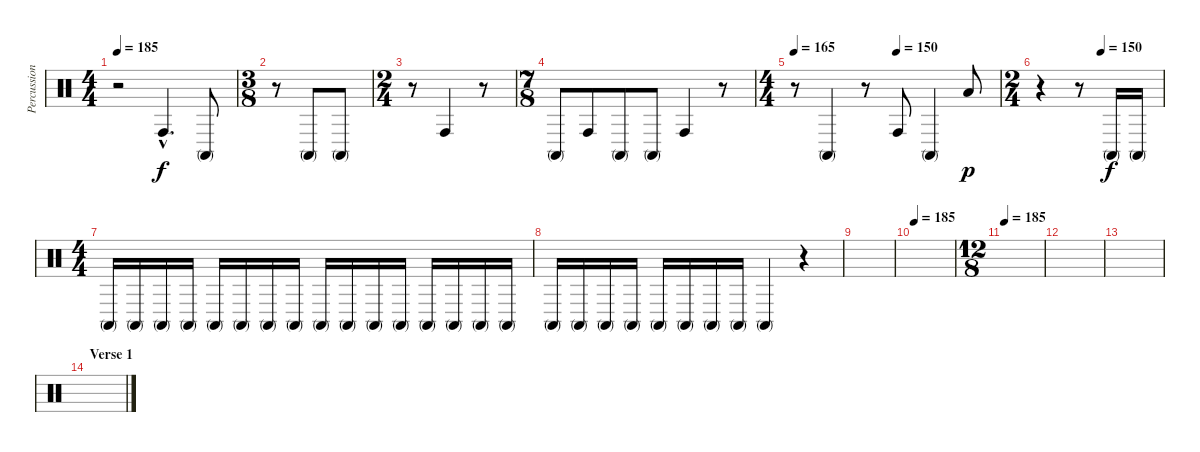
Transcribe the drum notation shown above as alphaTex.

\track ("Percussion" "Percussion") {instrument percussion}
\staff {score}
\articulation defaults
\ts (4 4)
\tempo 185
\tempo 150
\tempo 185
\clef neutral
\ks c
r.2{dy f} "Conga high (hit)"{hac}.4{d} "Conga high (mute)".8 |
\ts (3 8)
r.8 "Conga high (mute)".8 "Conga high (mute)".8 |
\ts (2 4)
r.8 "Conga high (hit)".4 r.8 |
\ts (7 8)
"Conga high (mute)".8 "Conga high (hit)".8 "Conga high (mute)".8 "Conga high (mute)".8 "Conga high (hit)".4 r.8 |
\ts (4 4)
\tempo 165
\tempo (150 0.5)
r.8 "Conga high (mute)".4 r.8 "Conga high (hit)".8 "Conga high (mute)".4 "Low Floor Tom (hit)".8{dy p} |
\ts (2 4)
\tempo (150 0.5)
r.4 r.8 "Conga high (mute)".16{dy f volume 8} "Conga high (mute)".16 |
\ts (4 4)
"Conga high (mute)".16{volume 3} "Conga high (mute)".16 "Conga high (mute)".16 "Conga high (mute)".16 "Conga high (mute)".16 "Conga high (mute)".16 "Conga high (mute)".16 "Conga high (mute)".16 "Conga high (mute)".16 "Conga high (mute)".16 "Conga high (mute)".16 "Conga high (mute)".16 "Conga high (mute)".16 "Conga high (mute)".16 "Conga high (mute)".16 "Conga high (mute)".16 |
"Conga high (mute)".16 "Conga high (mute)".16 "Conga high (mute)".16 "Conga high (mute)".16 "Conga high (mute)".16 "Conga high (mute)".16 "Conga high (mute)".16 "Conga high (mute)".16 "Conga high (mute)".4 r.4 |
|
\tempo 185
|
\ts (12 8)
\tempo 185
|
|
|
\section ("" "Verse 1")
